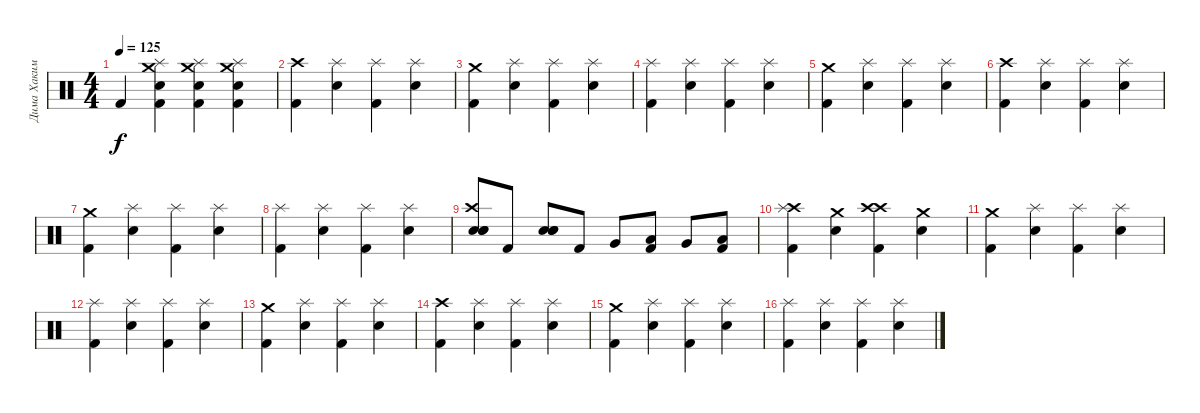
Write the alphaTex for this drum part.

\track ("Дима Хакимов" "Дима Хаким") {instrument percussion}
\staff {score}
\articulation defaults
\ts (4 4)
\tempo 125
\clef neutral
\ks c "Kick (hit) 2".4{dy f}
("Splash (hit)" "Electric Snare (hit)" "Crash medium (hit)" "Kick (hit) 2").4 ("Splash (hit)" "Electric Snare (hit)" "Crash medium (hit)" "Kick (hit) 2").4 ("Splash (hit)" "Electric Snare (hit)" "Crash medium (hit)" "Kick (hit) 2").4 |
("Crash high (hit)" "Kick (hit) 2").4 ("Splash (hit)" "Electric Snare (hit)").4 ("Splash (hit)" "Kick (hit) 2").4 ("Splash (hit)" "Electric Snare (hit)").4 |
("Crash medium (hit)" "Kick (hit) 2").4 ("Splash (hit)" "Electric Snare (hit)").4 ("Splash (hit)" "Kick (hit) 2").4 ("Splash (hit)" "Electric Snare (hit)").4 |
("Splash (hit)" "Kick (hit) 2").4 ("Splash (hit)" "Electric Snare (hit)").4 ("Splash (hit)" "Kick (hit) 2").4 ("Splash (hit)" "Electric Snare (hit)").4 |
("Crash medium (hit)" "Kick (hit) 2").4 ("Splash (hit)" "Electric Snare (hit)").4 ("Splash (hit)" "Kick (hit) 2").4 ("Splash (hit)" "Electric Snare (hit)").4 |
("Crash high (hit)" "Kick (hit) 2").4 ("Splash (hit)" "Electric Snare (hit)").4 ("Splash (hit)" "Kick (hit) 2").4 ("Splash (hit)" "Electric Snare (hit)").4 |
("Crash medium (hit)" "Kick (hit) 2").4 ("Splash (hit)" "Electric Snare (hit)").4 ("Splash (hit)" "Kick (hit) 2").4 ("Splash (hit)" "Electric Snare (hit)").4 |
("Splash (hit)" "Kick (hit) 2").4 ("Splash (hit)" "Electric Snare (hit)").4 ("Splash (hit)" "Kick (hit) 2").4 ("Splash (hit)" "Electric Snare (hit)").4 |
("Crash high (hit)" "Electric Snare (hit)" "Snare (hit) 2" "Hand Clap (hit)").8 "Kick (hit) 2".8 ("Electric Snare (hit)" "Snare (hit) 2" "Hand Clap (hit)").8 "Kick (hit) 2".8 "Very Low Tom (hit)".8 ("Low Floor Tom (hit)" "Kick (hit) 2").8 "Very Low Tom (hit)".8 ("Low Floor Tom (hit)" "Kick (hit) 2").8 |
("Crash high (hit)" "Splash (hit)" "Kick (hit) 2").4 ("Crash medium (hit)" "Electric Snare (hit)").4 ("Crash high (hit)" "Crash high (hit)" "Kick (hit) 2").4 ("Crash medium (hit)" "Electric Snare (hit)").4 |
("Crash medium (hit)" "Kick (hit) 2").4 ("Splash (hit)" "Electric Snare (hit)").4 ("Splash (hit)" "Kick (hit) 2").4 ("Splash (hit)" "Electric Snare (hit)").4 |
("Splash (hit)" "Kick (hit) 2").4 ("Splash (hit)" "Electric Snare (hit)").4 ("Splash (hit)" "Kick (hit) 2").4 ("Splash (hit)" "Electric Snare (hit)").4 |
("Crash medium (hit)" "Kick (hit) 2").4 ("Splash (hit)" "Electric Snare (hit)").4 ("Splash (hit)" "Kick (hit) 2").4 ("Splash (hit)" "Electric Snare (hit)").4 |
("Crash high (hit)" "Kick (hit) 2").4 ("Splash (hit)" "Electric Snare (hit)").4 ("Splash (hit)" "Kick (hit) 2").4 ("Splash (hit)" "Electric Snare (hit)").4 |
("Crash medium (hit)" "Kick (hit) 2").4 ("Splash (hit)" "Electric Snare (hit)").4 ("Splash (hit)" "Kick (hit) 2").4 ("Splash (hit)" "Electric Snare (hit)").4 |
("Splash (hit)" "Kick (hit) 2").4 ("Splash (hit)" "Electric Snare (hit)").4 ("Splash (hit)" "Kick (hit) 2").4 ("Splash (hit)" "Electric Snare (hit)").4
